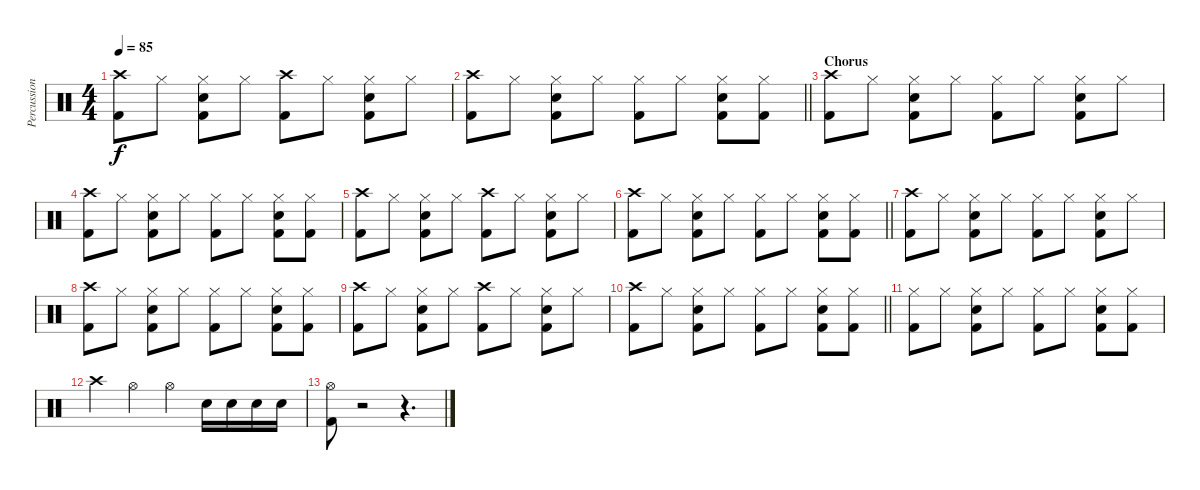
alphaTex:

\track ("Percussion" "Percussion") {instrument percussion}
\staff {score}
\articulation defaults
\ts (4 4)
\tempo 85
\clef neutral
\ks c
("Crash high (hit)" "Kick (hit) 2").8{dy f} "Hi-Hat (closed)".8 ("Hi-Hat (closed)" "Electric Snare (hit)" "Kick (hit) 2").8 "Hi-Hat (closed)".8 ("Crash high (hit)" "Kick (hit) 2").8 "Hi-Hat (closed)".8 ("Hi-Hat (closed)" "Electric Snare (hit)" "Kick (hit) 2").8 "Hi-Hat (closed)".8 |
\barLineRight lightlight
("Crash high (hit)" "Kick (hit) 2").8 "Hi-Hat (closed)".8 ("Hi-Hat (closed)" "Electric Snare (hit)" "Kick (hit) 2").8 "Hi-Hat (closed)".8 ("Hi-Hat (closed)" "Kick (hit) 2").8 "Hi-Hat (closed)".8 ("Hi-Hat (closed)" "Electric Snare (hit)" "Kick (hit) 2").8 ("Hi-Hat (closed)" "Kick (hit) 2").8 |
\section ("" "Chorus")
("Crash high (hit)" "Kick (hit) 2").8 "Hi-Hat (closed)".8 ("Hi-Hat (closed)" "Electric Snare (hit)" "Kick (hit) 2").8 "Hi-Hat (closed)".8 ("Hi-Hat (closed)" "Kick (hit) 2").8 "Hi-Hat (closed)".8 ("Hi-Hat (closed)" "Electric Snare (hit)" "Kick (hit) 2").8 "Hi-Hat (closed)".8 |
("Crash high (hit)" "Kick (hit) 2").8 "Hi-Hat (closed)".8 ("Hi-Hat (closed)" "Electric Snare (hit)" "Kick (hit) 2").8 "Hi-Hat (closed)".8 ("Hi-Hat (closed)" "Kick (hit) 2").8 "Hi-Hat (closed)".8 ("Hi-Hat (closed)" "Electric Snare (hit)" "Kick (hit) 2").8 ("Hi-Hat (closed)" "Kick (hit) 2").8 |
("Crash high (hit)" "Kick (hit) 2").8 "Hi-Hat (closed)".8 ("Hi-Hat (closed)" "Electric Snare (hit)" "Kick (hit) 2").8 "Hi-Hat (closed)".8 ("Crash high (hit)" "Kick (hit) 2").8 "Hi-Hat (closed)".8 ("Hi-Hat (closed)" "Electric Snare (hit)" "Kick (hit) 2").8 "Hi-Hat (closed)".8 |
\barLineRight lightlight
("Crash high (hit)" "Kick (hit) 2").8 "Hi-Hat (closed)".8 ("Hi-Hat (closed)" "Electric Snare (hit)" "Kick (hit) 2").8 "Hi-Hat (closed)".8 ("Hi-Hat (closed)" "Kick (hit) 2").8 "Hi-Hat (closed)".8 ("Hi-Hat (closed)" "Electric Snare (hit)" "Kick (hit) 2").8 ("Hi-Hat (closed)" "Kick (hit) 2").8 |
("Crash high (hit)" "Kick (hit) 2").8 "Hi-Hat (closed)".8 ("Hi-Hat (closed)" "Electric Snare (hit)" "Kick (hit) 2").8 "Hi-Hat (closed)".8 ("Hi-Hat (closed)" "Kick (hit) 2").8 "Hi-Hat (closed)".8 ("Hi-Hat (closed)" "Electric Snare (hit)" "Kick (hit) 2").8 "Hi-Hat (closed)".8 |
("Crash high (hit)" "Kick (hit) 2").8 "Hi-Hat (closed)".8 ("Hi-Hat (closed)" "Electric Snare (hit)" "Kick (hit) 2").8 "Hi-Hat (closed)".8 ("Hi-Hat (closed)" "Kick (hit) 2").8 "Hi-Hat (closed)".8 ("Hi-Hat (closed)" "Electric Snare (hit)" "Kick (hit) 2").8 ("Hi-Hat (closed)" "Kick (hit) 2").8 |
("Crash high (hit)" "Kick (hit) 2").8 "Hi-Hat (closed)".8 ("Hi-Hat (closed)" "Electric Snare (hit)" "Kick (hit) 2").8 "Hi-Hat (closed)".8 ("Crash high (hit)" "Kick (hit) 2").8 "Hi-Hat (closed)".8 ("Hi-Hat (closed)" "Electric Snare (hit)" "Kick (hit) 2").8 "Hi-Hat (closed)".8 |
\barLineRight lightlight
("Crash high (hit)" "Kick (hit) 2").8 "Hi-Hat (closed)".8 ("Hi-Hat (closed)" "Electric Snare (hit)" "Kick (hit) 2").8 "Hi-Hat (closed)".8 ("Hi-Hat (closed)" "Kick (hit) 2").8 "Hi-Hat (closed)".8 ("Hi-Hat (closed)" "Electric Snare (hit)" "Kick (hit) 2").8 ("Hi-Hat (closed)" "Kick (hit) 2").8 |
("Hi-Hat (closed)" "Kick (hit) 2").8 "Hi-Hat (closed)".8 ("Hi-Hat (closed)" "Electric Snare (hit)" "Kick (hit) 2").8 "Hi-Hat (closed)".8 ("Hi-Hat (closed)" "Kick (hit) 2").8 "Hi-Hat (closed)".8 ("Hi-Hat (closed)" "Electric Snare (hit)" "Kick (hit) 2").8 ("Hi-Hat (closed)" "Kick (hit) 2").8 |
"Crash high (hit)".4 "Hi-Hat (open)".4 "Hi-Hat (open)".4 "Electric Snare (hit)".16 "Electric Snare (hit)".16 "Electric Snare (hit)".16 "Electric Snare (hit)".16 |
("Hi-Hat (open)" "Kick (hit) 2").8 r.2 r.4{d}
